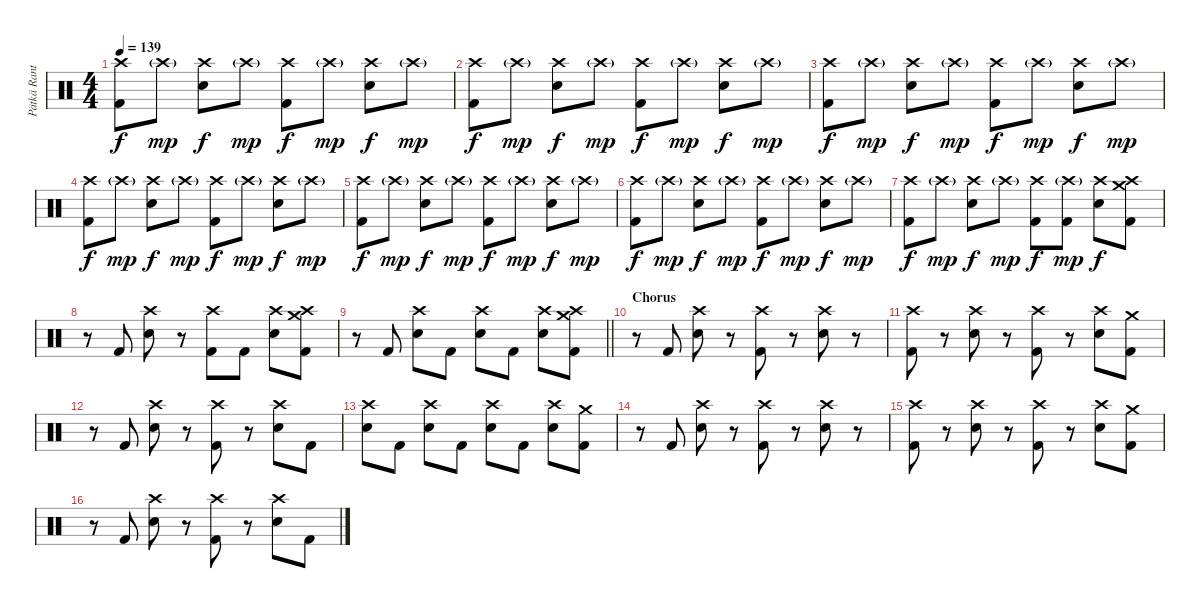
\track ("Pätkä Rantala (Drums)" "Pätkä Rant") {instrument percussion}
\staff {score}
\articulation defaults
\ts (4 4)
\tempo 139
\clef neutral
\ks c
("Crash high (hit)" "Kick (hit) 2").8{dy f} "Crash high (hit)"{g}.8{dy mp} ("Crash high (hit)" "Snare (hit) 2").8{dy f} "Crash high (hit)"{g}.8{dy mp} ("Crash high (hit)" "Kick (hit) 2").8{dy f} "Crash high (hit)"{g}.8{dy mp} ("Crash high (hit)" "Snare (hit) 2").8{dy f} "Crash high (hit)"{g}.8{dy mp} |
("Crash high (hit)" "Kick (hit) 2").8{dy f} "Crash high (hit)"{g}.8{dy mp} ("Crash high (hit)" "Snare (hit) 2").8{dy f} "Crash high (hit)"{g}.8{dy mp} ("Crash high (hit)" "Kick (hit) 2").8{dy f} "Crash high (hit)"{g}.8{dy mp} ("Crash high (hit)" "Snare (hit) 2").8{dy f} "Crash high (hit)"{g}.8{dy mp} |
("Crash high (hit)" "Kick (hit) 2").8{dy f} "Crash high (hit)"{g}.8{dy mp} ("Crash high (hit)" "Snare (hit) 2").8{dy f} "Crash high (hit)"{g}.8{dy mp} ("Crash high (hit)" "Kick (hit) 2").8{dy f} "Crash high (hit)"{g}.8{dy mp} ("Crash high (hit)" "Snare (hit) 2").8{dy f} "Crash high (hit)"{g}.8{dy mp} |
("Crash high (hit)" "Kick (hit) 2").8{dy f} "Crash high (hit)"{g}.8{dy mp} ("Crash high (hit)" "Snare (hit) 2").8{dy f} "Crash high (hit)"{g}.8{dy mp} ("Crash high (hit)" "Kick (hit) 2").8{dy f} "Crash high (hit)"{g}.8{dy mp} ("Crash high (hit)" "Snare (hit) 2").8{dy f} "Crash high (hit)"{g}.8{dy mp} |
("Crash high (hit)" "Kick (hit) 2").8{dy f} "Crash high (hit)"{g}.8{dy mp} ("Crash high (hit)" "Snare (hit) 2").8{dy f} "Crash high (hit)"{g}.8{dy mp} ("Crash high (hit)" "Kick (hit) 2").8{dy f} "Crash high (hit)"{g}.8{dy mp} ("Crash high (hit)" "Snare (hit) 2").8{dy f} "Crash high (hit)"{g}.8{dy mp} |
("Crash high (hit)" "Kick (hit) 2").8{dy f} "Crash high (hit)"{g}.8{dy mp} ("Crash high (hit)" "Snare (hit) 2").8{dy f} "Crash high (hit)"{g}.8{dy mp} ("Crash high (hit)" "Kick (hit) 2").8{dy f} "Crash high (hit)"{g}.8{dy mp} ("Crash high (hit)" "Snare (hit) 2").8{dy f} "Crash high (hit)"{g}.8{dy mp} |
("Crash high (hit)" "Kick (hit) 2").8{dy f} "Crash high (hit)"{g}.8{dy mp} ("Crash high (hit)" "Snare (hit) 2").8{dy f} "Crash high (hit)"{g}.8{dy mp} ("Crash high (hit)" "Kick (hit) 2").8{dy f} ("Crash high (hit)"{g} "Kick (hit) 2").8{dy mp} ("Crash high (hit)" "Snare (hit) 2").8{dy f} ("Crash medium (hit)" "Crash high (hit)" "Kick (hit) 2").8 |
r.8 "Kick (hit) 2".8 ("Crash high (hit)" "Snare (hit) 2").8 r.8 ("Crash high (hit)" "Kick (hit) 2").8 "Kick (hit) 2".8 ("Crash high (hit)" "Snare (hit) 2").8 ("Crash medium (hit)" "Crash high (hit)" "Kick (hit) 2").8 |
\barLineRight lightlight
r.8 "Kick (hit) 2".8 ("Crash high (hit)" "Snare (hit) 2").8 "Kick (hit) 2".8 ("Crash high (hit)" "Snare (hit) 2").8 "Kick (hit) 2".8 ("Crash high (hit)" "Snare (hit) 2").8 ("Crash medium (hit)" "Crash high (hit)" "Kick (hit) 2").8 |
\section ("" "Chorus")
r.8 "Kick (hit) 2".8 ("Crash high (hit)" "Snare (hit) 2").8 r.8 ("Crash high (hit)" "Kick (hit) 2").8 r.8 ("Crash high (hit)" "Snare (hit) 2").8 r.8 |
("Crash high (hit)" "Kick (hit) 2").8 r.8 ("Crash high (hit)" "Snare (hit) 2").8 r.8 ("Crash high (hit)" "Kick (hit) 2").8 r.8 ("Crash high (hit)" "Snare (hit) 2").8 ("Crash medium (hit)" "Kick (hit) 2").8 |
r.8 "Kick (hit) 2".8 ("Crash high (hit)" "Snare (hit) 2").8 r.8 ("Crash high (hit)" "Kick (hit) 2").8 r.8 ("Crash high (hit)" "Snare (hit) 2").8 "Kick (hit) 2".8 |
("Crash high (hit)" "Snare (hit) 2").8 "Kick (hit) 2".8 ("Crash high (hit)" "Snare (hit) 2").8 "Kick (hit) 2".8 ("Crash high (hit)" "Snare (hit) 2").8 "Kick (hit) 2".8 ("Crash high (hit)" "Snare (hit) 2").8 ("Crash medium (hit)" "Kick (hit) 2").8 |
r.8 "Kick (hit) 2".8 ("Crash high (hit)" "Snare (hit) 2").8 r.8 ("Crash high (hit)" "Kick (hit) 2").8 r.8 ("Crash high (hit)" "Snare (hit) 2").8 r.8 |
("Crash high (hit)" "Kick (hit) 2").8 r.8 ("Crash high (hit)" "Snare (hit) 2").8 r.8 ("Crash high (hit)" "Kick (hit) 2").8 r.8 ("Crash high (hit)" "Snare (hit) 2").8 ("Crash medium (hit)" "Kick (hit) 2").8 |
r.8 "Kick (hit) 2".8 ("Crash high (hit)" "Snare (hit) 2").8 r.8 ("Crash high (hit)" "Kick (hit) 2").8 r.8 ("Crash high (hit)" "Snare (hit) 2").8 "Kick (hit) 2".8
